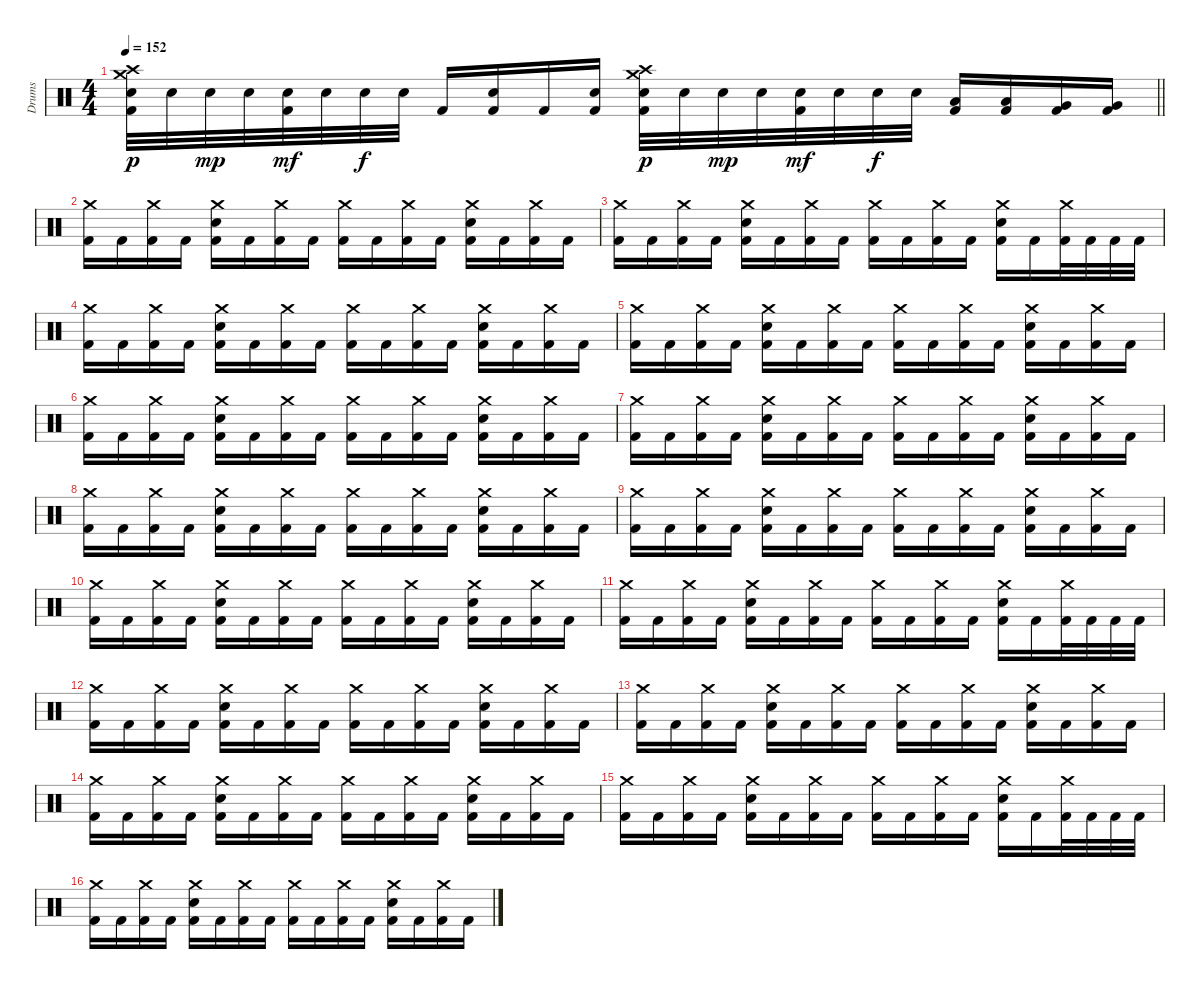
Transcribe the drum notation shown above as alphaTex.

\track ("Drums" "Drums") {instrument percussion}
\staff {score}
\articulation defaults
\ts (4 4)
\tempo 152
\clef neutral
\barLineRight lightlight
\ks c
("Crash medium (hit)" "Crash high (hit)" "Snare (hit) 2" "Kick (hit) 2").32{dy p} "Snare (hit) 2".32 "Snare (hit) 2".32{dy mp} "Snare (hit) 2".32 ("Snare (hit) 2" "Kick (hit) 2").32{dy mf} "Snare (hit) 2".32 "Snare (hit) 2".32{dy f} "Snare (hit) 2".32 "Kick (hit) 2".16 ("Snare (hit) 2" "Kick (hit) 2").16 "Kick (hit) 2".16 ("Snare (hit) 2" "Kick (hit) 2").16 ("Crash medium (hit)" "Crash high (hit)" "Snare (hit) 2" "Kick (hit) 2").32{dy p} "Snare (hit) 2".32 "Snare (hit) 2".32{dy mp} "Snare (hit) 2".32 ("Snare (hit) 2" "Kick (hit) 2").32{dy mf} "Snare (hit) 2".32 "Snare (hit) 2".32{dy f} "Snare (hit) 2".32 ("Low Tom (hit)" "Kick (hit) 2").16 ("Low Tom (hit)" "Kick (hit) 2").16 ("Very Low Tom (hit)" "Kick (hit) 2").16 ("Very Low Tom (hit)" "Kick (hit) 2").16 |
\section ("" "")
("Crash medium (hit)" "Kick (hit) 2").16 "Kick (hit) 2".16 ("Crash medium (hit)" "Kick (hit) 2").16 "Kick (hit) 2".16 ("Crash medium (hit)" "Snare (hit) 2" "Kick (hit) 2").16 "Kick (hit) 2".16 ("Crash medium (hit)" "Kick (hit) 2").16 "Kick (hit) 2".16 ("Crash medium (hit)" "Kick (hit) 2").16 "Kick (hit) 2".16 ("Crash medium (hit)" "Kick (hit) 2").16 "Kick (hit) 2".16 ("Crash medium (hit)" "Snare (hit) 2" "Kick (hit) 2").16 "Kick (hit) 2".16 ("Crash medium (hit)" "Kick (hit) 2").16 "Kick (hit) 2".16 |
("Crash medium (hit)" "Kick (hit) 2").16 "Kick (hit) 2".16 ("Crash medium (hit)" "Kick (hit) 2").16 "Kick (hit) 2".16 ("Crash medium (hit)" "Snare (hit) 2" "Kick (hit) 2").16 "Kick (hit) 2".16 ("Crash medium (hit)" "Kick (hit) 2").16 "Kick (hit) 2".16 ("Crash medium (hit)" "Kick (hit) 2").16 "Kick (hit) 2".16 ("Crash medium (hit)" "Kick (hit) 2").16 "Kick (hit) 2".16 ("Crash medium (hit)" "Snare (hit) 2" "Kick (hit) 2").16 "Kick (hit) 2".16 ("Crash medium (hit)" "Kick (hit) 2").32 "Kick (hit) 2".32 "Kick (hit) 2".32 "Kick (hit) 2".32 |
("Crash medium (hit)" "Kick (hit) 2").16 "Kick (hit) 2".16 ("Crash medium (hit)" "Kick (hit) 2").16 "Kick (hit) 2".16 ("Crash medium (hit)" "Snare (hit) 2" "Kick (hit) 2").16 "Kick (hit) 2".16 ("Crash medium (hit)" "Kick (hit) 2").16 "Kick (hit) 2".16 ("Crash medium (hit)" "Kick (hit) 2").16 "Kick (hit) 2".16 ("Crash medium (hit)" "Kick (hit) 2").16 "Kick (hit) 2".16 ("Crash medium (hit)" "Snare (hit) 2" "Kick (hit) 2").16 "Kick (hit) 2".16 ("Crash medium (hit)" "Kick (hit) 2").16 "Kick (hit) 2".16 |
("Crash medium (hit)" "Kick (hit) 2").16 "Kick (hit) 2".16 ("Crash medium (hit)" "Kick (hit) 2").16 "Kick (hit) 2".16 ("Crash medium (hit)" "Snare (hit) 2" "Kick (hit) 2").16 "Kick (hit) 2".16 ("Crash medium (hit)" "Kick (hit) 2").16 "Kick (hit) 2".16 ("Crash medium (hit)" "Kick (hit) 2").16 "Kick (hit) 2".16 ("Crash medium (hit)" "Kick (hit) 2").16 "Kick (hit) 2".16 ("Crash medium (hit)" "Snare (hit) 2" "Kick (hit) 2").16 "Kick (hit) 2".16 ("Crash medium (hit)" "Kick (hit) 2").16 "Kick (hit) 2".16 |
("Crash medium (hit)" "Kick (hit) 2").16 "Kick (hit) 2".16 ("Crash medium (hit)" "Kick (hit) 2").16 "Kick (hit) 2".16 ("Crash medium (hit)" "Snare (hit) 2" "Kick (hit) 2").16 "Kick (hit) 2".16 ("Crash medium (hit)" "Kick (hit) 2").16 "Kick (hit) 2".16 ("Crash medium (hit)" "Kick (hit) 2").16 "Kick (hit) 2".16 ("Crash medium (hit)" "Kick (hit) 2").16 "Kick (hit) 2".16 ("Crash medium (hit)" "Snare (hit) 2" "Kick (hit) 2").16 "Kick (hit) 2".16 ("Crash medium (hit)" "Kick (hit) 2").16 "Kick (hit) 2".16 |
("Crash medium (hit)" "Kick (hit) 2").16 "Kick (hit) 2".16 ("Crash medium (hit)" "Kick (hit) 2").16 "Kick (hit) 2".16 ("Crash medium (hit)" "Snare (hit) 2" "Kick (hit) 2").16 "Kick (hit) 2".16 ("Crash medium (hit)" "Kick (hit) 2").16 "Kick (hit) 2".16 ("Crash medium (hit)" "Kick (hit) 2").16 "Kick (hit) 2".16 ("Crash medium (hit)" "Kick (hit) 2").16 "Kick (hit) 2".16 ("Crash medium (hit)" "Snare (hit) 2" "Kick (hit) 2").16 "Kick (hit) 2".16 ("Crash medium (hit)" "Kick (hit) 2").16 "Kick (hit) 2".16 |
("Crash medium (hit)" "Kick (hit) 2").16 "Kick (hit) 2".16 ("Crash medium (hit)" "Kick (hit) 2").16 "Kick (hit) 2".16 ("Crash medium (hit)" "Snare (hit) 2" "Kick (hit) 2").16 "Kick (hit) 2".16 ("Crash medium (hit)" "Kick (hit) 2").16 "Kick (hit) 2".16 ("Crash medium (hit)" "Kick (hit) 2").16 "Kick (hit) 2".16 ("Crash medium (hit)" "Kick (hit) 2").16 "Kick (hit) 2".16 ("Crash medium (hit)" "Snare (hit) 2" "Kick (hit) 2").16 "Kick (hit) 2".16 ("Crash medium (hit)" "Kick (hit) 2").16 "Kick (hit) 2".16 |
("Crash medium (hit)" "Kick (hit) 2").16 "Kick (hit) 2".16 ("Crash medium (hit)" "Kick (hit) 2").16 "Kick (hit) 2".16 ("Crash medium (hit)" "Snare (hit) 2" "Kick (hit) 2").16 "Kick (hit) 2".16 ("Crash medium (hit)" "Kick (hit) 2").16 "Kick (hit) 2".16 ("Crash medium (hit)" "Kick (hit) 2").16 "Kick (hit) 2".16 ("Crash medium (hit)" "Kick (hit) 2").16 "Kick (hit) 2".16 ("Crash medium (hit)" "Snare (hit) 2" "Kick (hit) 2").16 "Kick (hit) 2".16 ("Crash medium (hit)" "Kick (hit) 2").16 "Kick (hit) 2".16 |
("Crash medium (hit)" "Kick (hit) 2").16 "Kick (hit) 2".16 ("Crash medium (hit)" "Kick (hit) 2").16 "Kick (hit) 2".16 ("Crash medium (hit)" "Snare (hit) 2" "Kick (hit) 2").16 "Kick (hit) 2".16 ("Crash medium (hit)" "Kick (hit) 2").16 "Kick (hit) 2".16 ("Crash medium (hit)" "Kick (hit) 2").16 "Kick (hit) 2".16 ("Crash medium (hit)" "Kick (hit) 2").16 "Kick (hit) 2".16 ("Crash medium (hit)" "Snare (hit) 2" "Kick (hit) 2").16 "Kick (hit) 2".16 ("Crash medium (hit)" "Kick (hit) 2").16 "Kick (hit) 2".16 |
("Crash medium (hit)" "Kick (hit) 2").16 "Kick (hit) 2".16 ("Crash medium (hit)" "Kick (hit) 2").16 "Kick (hit) 2".16 ("Crash medium (hit)" "Snare (hit) 2" "Kick (hit) 2").16 "Kick (hit) 2".16 ("Crash medium (hit)" "Kick (hit) 2").16 "Kick (hit) 2".16 ("Crash medium (hit)" "Kick (hit) 2").16 "Kick (hit) 2".16 ("Crash medium (hit)" "Kick (hit) 2").16 "Kick (hit) 2".16 ("Crash medium (hit)" "Snare (hit) 2" "Kick (hit) 2").16 "Kick (hit) 2".16 ("Crash medium (hit)" "Kick (hit) 2").32 "Kick (hit) 2".32 "Kick (hit) 2".32 "Kick (hit) 2".32 |
("Crash medium (hit)" "Kick (hit) 2").16 "Kick (hit) 2".16 ("Crash medium (hit)" "Kick (hit) 2").16 "Kick (hit) 2".16 ("Crash medium (hit)" "Snare (hit) 2" "Kick (hit) 2").16 "Kick (hit) 2".16 ("Crash medium (hit)" "Kick (hit) 2").16 "Kick (hit) 2".16 ("Crash medium (hit)" "Kick (hit) 2").16 "Kick (hit) 2".16 ("Crash medium (hit)" "Kick (hit) 2").16 "Kick (hit) 2".16 ("Crash medium (hit)" "Snare (hit) 2" "Kick (hit) 2").16 "Kick (hit) 2".16 ("Crash medium (hit)" "Kick (hit) 2").16 "Kick (hit) 2".16 |
("Crash medium (hit)" "Kick (hit) 2").16 "Kick (hit) 2".16 ("Crash medium (hit)" "Kick (hit) 2").16 "Kick (hit) 2".16 ("Crash medium (hit)" "Snare (hit) 2" "Kick (hit) 2").16 "Kick (hit) 2".16 ("Crash medium (hit)" "Kick (hit) 2").16 "Kick (hit) 2".16 ("Crash medium (hit)" "Kick (hit) 2").16 "Kick (hit) 2".16 ("Crash medium (hit)" "Kick (hit) 2").16 "Kick (hit) 2".16 ("Crash medium (hit)" "Snare (hit) 2" "Kick (hit) 2").16 "Kick (hit) 2".16 ("Crash medium (hit)" "Kick (hit) 2").16 "Kick (hit) 2".16 |
("Crash medium (hit)" "Kick (hit) 2").16 "Kick (hit) 2".16 ("Crash medium (hit)" "Kick (hit) 2").16 "Kick (hit) 2".16 ("Crash medium (hit)" "Snare (hit) 2" "Kick (hit) 2").16 "Kick (hit) 2".16 ("Crash medium (hit)" "Kick (hit) 2").16 "Kick (hit) 2".16 ("Crash medium (hit)" "Kick (hit) 2").16 "Kick (hit) 2".16 ("Crash medium (hit)" "Kick (hit) 2").16 "Kick (hit) 2".16 ("Crash medium (hit)" "Snare (hit) 2" "Kick (hit) 2").16 "Kick (hit) 2".16 ("Crash medium (hit)" "Kick (hit) 2").16 "Kick (hit) 2".16 |
("Crash medium (hit)" "Kick (hit) 2").16 "Kick (hit) 2".16 ("Crash medium (hit)" "Kick (hit) 2").16 "Kick (hit) 2".16 ("Crash medium (hit)" "Snare (hit) 2" "Kick (hit) 2").16 "Kick (hit) 2".16 ("Crash medium (hit)" "Kick (hit) 2").16 "Kick (hit) 2".16 ("Crash medium (hit)" "Kick (hit) 2").16 "Kick (hit) 2".16 ("Crash medium (hit)" "Kick (hit) 2").16 "Kick (hit) 2".16 ("Crash medium (hit)" "Snare (hit) 2" "Kick (hit) 2").16 "Kick (hit) 2".16 ("Crash medium (hit)" "Kick (hit) 2").32 "Kick (hit) 2".32 "Kick (hit) 2".32 "Kick (hit) 2".32 |
("Crash medium (hit)" "Kick (hit) 2").16 "Kick (hit) 2".16 ("Crash medium (hit)" "Kick (hit) 2").16 "Kick (hit) 2".16 ("Crash medium (hit)" "Snare (hit) 2" "Kick (hit) 2").16 "Kick (hit) 2".16 ("Crash medium (hit)" "Kick (hit) 2").16 "Kick (hit) 2".16 ("Crash medium (hit)" "Kick (hit) 2").16 "Kick (hit) 2".16 ("Crash medium (hit)" "Kick (hit) 2").16 "Kick (hit) 2".16 ("Crash medium (hit)" "Snare (hit) 2" "Kick (hit) 2").16 "Kick (hit) 2".16 ("Crash medium (hit)" "Kick (hit) 2").16 "Kick (hit) 2".16
